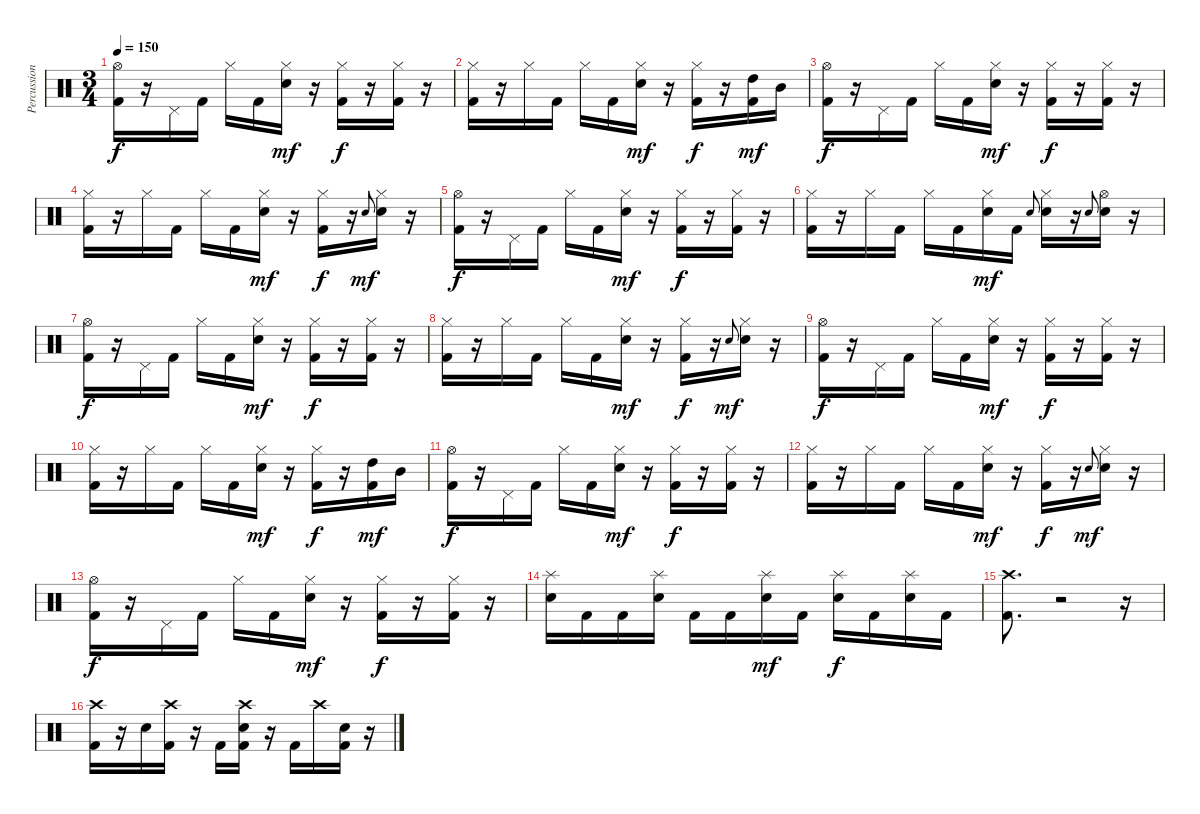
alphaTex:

\track ("Percussion" "Percussion") {instrument percussion}
\staff {score}
\articulation defaults
\ts (3 4)
\tempo 150
\clef neutral
\ks c
("Hi-Hat (open)" "Kick (hit) 2").16{dy f} r.16 "Pedal Hi-Hat (hit)".16 "Kick (hit) 2".16 "Hi-Hat (closed)".16 "Kick (hit) 2".16 ("Hi-Hat (closed)" "Electric Snare (hit)").16{dy mf} r.16 ("Hi-Hat (closed)" "Kick (hit) 2").16{dy f} r.16 ("Hi-Hat (closed)" "Kick (hit) 2").16 r.16 |
("Hi-Hat (closed)" "Kick (hit) 2").16 r.16 "Hi-Hat (closed)".16 "Kick (hit) 2".16 "Hi-Hat (closed)".16 "Kick (hit) 2".16 ("Hi-Hat (closed)" "Electric Snare (hit)").16{dy mf} r.16 ("Hi-Hat (closed)" "Kick (hit) 2").16{dy f} r.16 ("High Tom (hit)" "Kick (hit) 2").16{dy mf} "Mid Tom (hit)".16 |
("Hi-Hat (open)" "Kick (hit) 2").16{dy f} r.16 "Pedal Hi-Hat (hit)".16 "Kick (hit) 2".16 "Hi-Hat (closed)".16 "Kick (hit) 2".16 ("Hi-Hat (closed)" "Electric Snare (hit)").16{dy mf} r.16 ("Hi-Hat (closed)" "Kick (hit) 2").16{dy f} r.16 ("Hi-Hat (closed)" "Kick (hit) 2").16 r.16 |
("Hi-Hat (closed)" "Kick (hit) 2").16 r.16 "Hi-Hat (closed)".16 "Kick (hit) 2".16 "Hi-Hat (closed)".16 "Kick (hit) 2".16 ("Hi-Hat (closed)" "Electric Snare (hit)").16{dy mf} r.16 ("Hi-Hat (closed)" "Kick (hit) 2").16{dy f} r.16 "Electric Snare (hit)"{h}.8{gr onbeat dy mf} ("Hi-Hat (closed)" "Electric Snare (hit)").16 r.16 |
("Hi-Hat (open)" "Kick (hit) 2").16{dy f} r.16 "Pedal Hi-Hat (hit)".16 "Kick (hit) 2".16 "Hi-Hat (closed)".16 "Kick (hit) 2".16 ("Hi-Hat (closed)" "Electric Snare (hit)").16{dy mf} r.16 ("Hi-Hat (closed)" "Kick (hit) 2").16{dy f} r.16 ("Hi-Hat (closed)" "Kick (hit) 2").16 r.16 |
("Hi-Hat (closed)" "Kick (hit) 2").16 r.16 "Hi-Hat (closed)".16 "Kick (hit) 2".16 "Hi-Hat (closed)".16 "Kick (hit) 2".16 ("Hi-Hat (closed)" "Electric Snare (hit)").16{dy mf} "Kick (hit) 2".16 "Electric Snare (hit)"{h}.8{gr onbeat} ("Hi-Hat (closed)" "Electric Snare (hit)").16 r.16 "Electric Snare (hit)"{h}.8{gr onbeat} ("Hi-Hat (open)" "Electric Snare (hit)").16 r.16 |
("Hi-Hat (open)" "Kick (hit) 2").16{dy f} r.16 "Pedal Hi-Hat (hit)".16 "Kick (hit) 2".16 "Hi-Hat (closed)".16 "Kick (hit) 2".16 ("Hi-Hat (closed)" "Electric Snare (hit)").16{dy mf} r.16 ("Hi-Hat (closed)" "Kick (hit) 2").16{dy f} r.16 ("Hi-Hat (closed)" "Kick (hit) 2").16 r.16 |
("Hi-Hat (closed)" "Kick (hit) 2").16 r.16 "Hi-Hat (closed)".16 "Kick (hit) 2".16 "Hi-Hat (closed)".16 "Kick (hit) 2".16 ("Hi-Hat (closed)" "Electric Snare (hit)").16{dy mf} r.16 ("Hi-Hat (closed)" "Kick (hit) 2").16{dy f} r.16 "Electric Snare (hit)"{h}.8{gr onbeat dy mf} ("Hi-Hat (closed)" "Electric Snare (hit)").16 r.16 |
("Hi-Hat (open)" "Kick (hit) 2").16{dy f} r.16 "Pedal Hi-Hat (hit)".16 "Kick (hit) 2".16 "Hi-Hat (closed)".16 "Kick (hit) 2".16 ("Hi-Hat (closed)" "Electric Snare (hit)").16{dy mf} r.16 ("Hi-Hat (closed)" "Kick (hit) 2").16{dy f} r.16 ("Hi-Hat (closed)" "Kick (hit) 2").16 r.16 |
("Hi-Hat (closed)" "Kick (hit) 2").16 r.16 "Hi-Hat (closed)".16 "Kick (hit) 2".16 "Hi-Hat (closed)".16 "Kick (hit) 2".16 ("Hi-Hat (closed)" "Electric Snare (hit)").16{dy mf} r.16 ("Hi-Hat (closed)" "Kick (hit) 2").16{dy f} r.16 ("High Tom (hit)" "Kick (hit) 2").16{dy mf} "Mid Tom (hit)".16 |
("Hi-Hat (open)" "Kick (hit) 2").16{dy f} r.16 "Pedal Hi-Hat (hit)".16 "Kick (hit) 2".16 "Hi-Hat (closed)".16 "Kick (hit) 2".16 ("Hi-Hat (closed)" "Electric Snare (hit)").16{dy mf} r.16 ("Hi-Hat (closed)" "Kick (hit) 2").16{dy f} r.16 ("Hi-Hat (closed)" "Kick (hit) 2").16 r.16 |
("Hi-Hat (closed)" "Kick (hit) 2").16 r.16 "Hi-Hat (closed)".16 "Kick (hit) 2".16 "Hi-Hat (closed)".16 "Kick (hit) 2".16 ("Hi-Hat (closed)" "Electric Snare (hit)").16{dy mf} r.16 ("Hi-Hat (closed)" "Kick (hit) 2").16{dy f} r.16 "Electric Snare (hit)"{h}.8{gr onbeat dy mf} ("Hi-Hat (closed)" "Electric Snare (hit)").16 r.16 |
("Hi-Hat (open)" "Kick (hit) 2").16{dy f} r.16 "Pedal Hi-Hat (hit)".16 "Kick (hit) 2".16 "Hi-Hat (closed)".16 "Kick (hit) 2".16 ("Hi-Hat (closed)" "Electric Snare (hit)").16{dy mf} r.16 ("Hi-Hat (closed)" "Kick (hit) 2").16{dy f} r.16 ("Hi-Hat (closed)" "Kick (hit) 2").16 r.16 |
("Splash (hit)" "Electric Snare (hit)").16 "Kick (hit) 2".16 "Kick (hit) 2".16 ("Splash (hit)" "Electric Snare (hit)").16 "Kick (hit) 2".16 "Kick (hit) 2".16 ("Splash (hit)" "Electric Snare (hit)").16{dy mf} "Kick (hit) 2".16 ("Splash (hit)" "Electric Snare (hit)").16{dy f} "Kick (hit) 2".16 ("Splash (hit)" "Electric Snare (hit)").16 "Kick (hit) 2".16 |
("Crash high (hit)" "Kick (hit) 2").8{d} r.2{volume 0} r.16 |
("Crash high (hit)" "Kick (hit) 2").16 r.16 "Electric Snare (hit)".16 ("Crash high (hit)" "Kick (hit) 2").16 r.16 "Kick (hit) 2".16 ("Crash high (hit)" "Electric Snare (hit)" "Kick (hit) 2").16 r.16 "Kick (hit) 2".16 "Crash high (hit)".16 ("Electric Snare (hit)" "Kick (hit) 2").16 r.16
